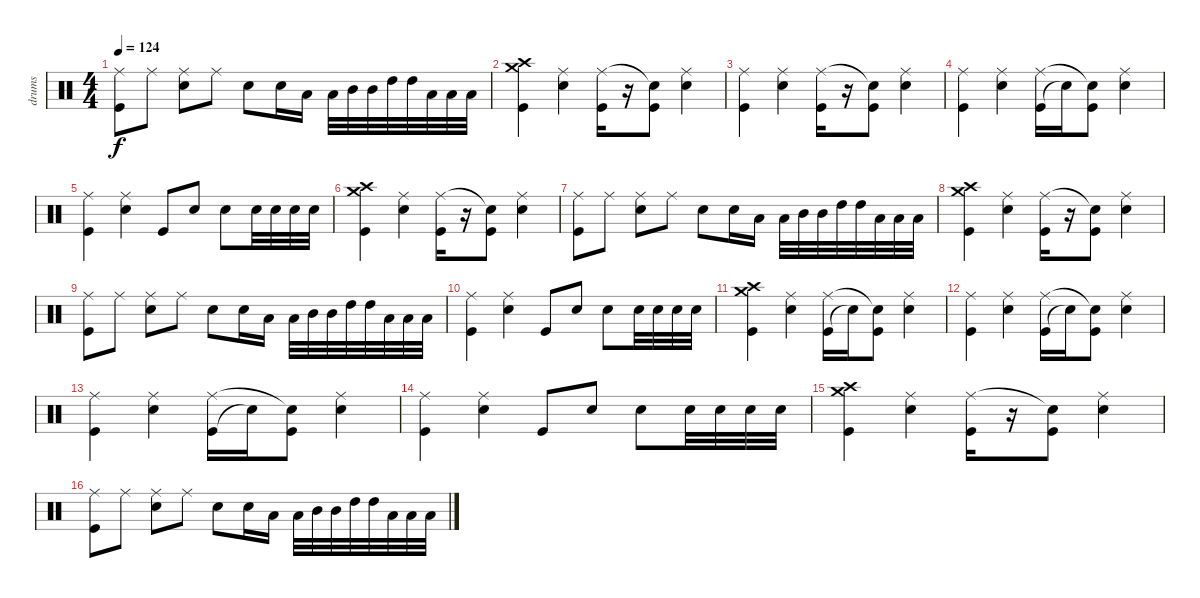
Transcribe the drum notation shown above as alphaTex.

\track ("drums" "drums") {instrument percussion}
\staff {score}
\articulation defaults
\ts (4 4)
\tempo 124
\clef neutral
\ks c
("Kick (hit)" "Ride (middle)").8{dy f} "Ride (middle)".8 ("Snare (hit) 2" "Ride (middle)").8 "Ride (middle)".8 "Snare (hit) 2".8 "Snare (hit) 2".16 "Low Tom (hit)".16 "Low Tom (hit)".32 "Mid Tom (hit)".32 "Mid Tom (hit)".32 "High Tom (hit)".32 "High Tom (hit)".32 "Low Floor Tom (hit)".32 "Low Floor Tom (hit)".32 "Low Floor Tom (hit)".32 |
("Kick (hit)" "Crash medium (hit)" "Crash high (hit)").4 ("Snare (hit) 2" "Ride (middle)").4 ("Kick (hit)" "Ride (middle)").16 r.16 ("Kick (hit)" "Snare (hit)"{t}).8 ("Snare (hit) 2" "Ride (middle)").4 |
("Kick (hit)" "Ride (middle)").4 ("Snare (hit) 2" "Ride (middle)").4 ("Kick (hit)" "Ride (middle)").16 r.16 ("Kick (hit)" "Snare (hit)"{t}).8 ("Snare (hit) 2" "Ride (middle)").4 |
("Kick (hit)" "Ride (middle)").4 ("Snare (hit) 2" "Ride (middle)").4 ("Kick (hit)" "Ride (middle)").16 "Snare (hit)"{t}.16 ("Kick (hit)" "Snare (hit)"{t}).8 ("Snare (hit) 2" "Ride (middle)").4 |
("Kick (hit)" "Ride (middle)").4 ("Snare (hit) 2" "Ride (middle)").4 "Kick (hit)".8 "Snare (hit) 2".8 "Snare (hit) 2".8 "Snare (hit) 2".32 "Snare (hit) 2".32 "Snare (hit) 2".32 "Snare (hit) 2".32 |
("Kick (hit)" "Crash medium (hit)" "Crash high (hit)").4 ("Snare (hit) 2" "Ride (middle)").4 ("Kick (hit)" "Ride (middle)").16 r.16 ("Kick (hit)" "Snare (hit)"{t}).8 ("Snare (hit) 2" "Ride (middle)").4 |
("Kick (hit)" "Ride (middle)").8 "Ride (middle)".8 ("Snare (hit) 2" "Ride (middle)").8 "Ride (middle)".8 "Snare (hit) 2".8 "Snare (hit) 2".16 "Low Tom (hit)".16 "Low Tom (hit)".32 "Mid Tom (hit)".32 "Mid Tom (hit)".32 "High Tom (hit)".32 "High Tom (hit)".32 "Low Floor Tom (hit)".32 "Low Floor Tom (hit)".32 "Low Floor Tom (hit)".32 |
("Kick (hit)" "Crash medium (hit)" "Crash high (hit)").4 ("Snare (hit) 2" "Ride (middle)").4 ("Kick (hit)" "Ride (middle)").16 r.16 ("Kick (hit)" "Snare (hit)"{t}).8 ("Snare (hit) 2" "Ride (middle)").4 |
("Kick (hit)" "Ride (middle)").8 "Ride (middle)".8 ("Snare (hit) 2" "Ride (middle)").8 "Ride (middle)".8 "Snare (hit) 2".8 "Snare (hit) 2".16 "Low Tom (hit)".16 "Low Tom (hit)".32 "Mid Tom (hit)".32 "Mid Tom (hit)".32 "High Tom (hit)".32 "High Tom (hit)".32 "Low Floor Tom (hit)".32 "Low Floor Tom (hit)".32 "Low Floor Tom (hit)".32 |
("Kick (hit)" "Ride (middle)").4 ("Snare (hit) 2" "Ride (middle)").4 "Kick (hit)".8 "Snare (hit) 2".8 "Snare (hit) 2".8 "Snare (hit) 2".32 "Snare (hit) 2".32 "Snare (hit) 2".32 "Snare (hit) 2".32 |
("Kick (hit)" "Crash medium (hit)" "Crash high (hit)").4{volume 2} ("Snare (hit) 2" "Ride (middle)").4 ("Kick (hit)" "Ride (middle)").16 "Snare (hit)"{t}.16 ("Kick (hit)" "Snare (hit)"{t}).8 ("Snare (hit) 2" "Ride (middle)").4 |
("Kick (hit)" "Ride (middle)").4 ("Snare (hit) 2" "Ride (middle)").4 ("Kick (hit)" "Ride (middle)").16 "Snare (hit)"{t}.16 ("Kick (hit)" "Snare (hit)"{t}).8 ("Snare (hit) 2" "Ride (middle)").4 |
("Kick (hit)" "Ride (middle)").4 ("Snare (hit) 2" "Ride (middle)").4 ("Kick (hit)" "Ride (middle)").16 "Snare (hit)"{t}.16 ("Kick (hit)" "Snare (hit)"{t}).8 ("Snare (hit) 2" "Ride (middle)").4 |
("Kick (hit)" "Ride (middle)").4 ("Snare (hit) 2" "Ride (middle)").4 "Kick (hit)".8 "Snare (hit) 2".8 "Snare (hit) 2".8 "Snare (hit) 2".32 "Snare (hit) 2".32 "Snare (hit) 2".32 "Snare (hit) 2".32 |
("Kick (hit)" "Crash medium (hit)" "Crash high (hit)").4 ("Snare (hit) 2" "Ride (middle)").4 ("Kick (hit)" "Ride (middle)").16 r.16 ("Kick (hit)" "Snare (hit)"{t}).8 ("Snare (hit) 2" "Ride (middle)").4 |
("Kick (hit)" "Ride (middle)").8 "Ride (middle)".8 ("Snare (hit) 2" "Ride (middle)").8 "Ride (middle)".8 "Snare (hit) 2".8 "Snare (hit) 2".16 "Low Tom (hit)".16 "Low Tom (hit)".32 "Mid Tom (hit)".32 "Mid Tom (hit)".32 "High Tom (hit)".32 "High Tom (hit)".32 "Low Floor Tom (hit)".32 "Low Floor Tom (hit)".32 "Low Floor Tom (hit)".32
